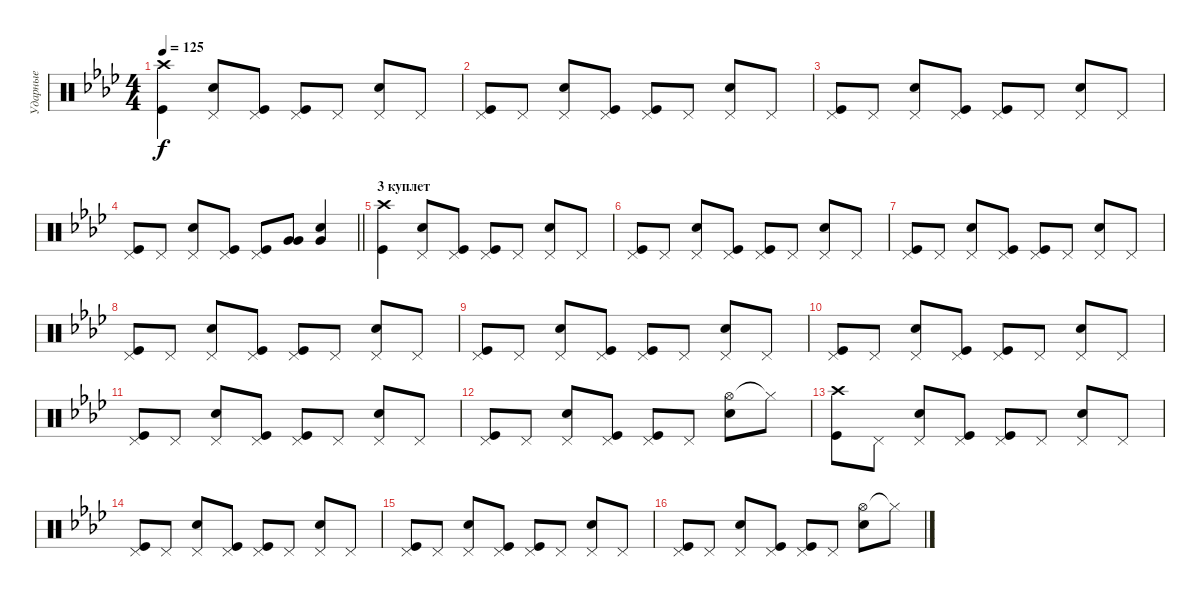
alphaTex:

\track ("Ударные" "Ударные") {solo instrument percussion}
\staff {score}
\articulation defaults
\ts (4 4)
\tempo 125
\clef neutral
\ks fminor
("Crash high (hit)" "Kick (hit)").4{dy f} ("Pedal Hi-Hat (hit)" "Electric Snare (hit)").8 ("Pedal Hi-Hat (hit)" "Kick (hit)").8 ("Pedal Hi-Hat (hit)" "Kick (hit)").8 "Pedal Hi-Hat (hit)".8 ("Pedal Hi-Hat (hit)" "Electric Snare (hit)").8 "Pedal Hi-Hat (hit)".8 |
("Pedal Hi-Hat (hit)" "Kick (hit)").8 "Pedal Hi-Hat (hit)".8 ("Pedal Hi-Hat (hit)" "Electric Snare (hit)").8 ("Pedal Hi-Hat (hit)" "Kick (hit)").8 ("Pedal Hi-Hat (hit)" "Kick (hit)").8 "Pedal Hi-Hat (hit)".8 ("Pedal Hi-Hat (hit)" "Electric Snare (hit)").8 "Pedal Hi-Hat (hit)".8 |
("Pedal Hi-Hat (hit)" "Kick (hit)").8 "Pedal Hi-Hat (hit)".8 ("Pedal Hi-Hat (hit)" "Electric Snare (hit)").8 ("Pedal Hi-Hat (hit)" "Kick (hit)").8 ("Pedal Hi-Hat (hit)" "Kick (hit)").8 "Pedal Hi-Hat (hit)".8 ("Pedal Hi-Hat (hit)" "Electric Snare (hit)").8 "Pedal Hi-Hat (hit)".8 |
\barLineRight lightlight
("Pedal Hi-Hat (hit)" "Kick (hit)").8 "Pedal Hi-Hat (hit)".8 ("Pedal Hi-Hat (hit)" "Electric Snare (hit)").8 ("Pedal Hi-Hat (hit)" "Kick (hit)").8 ("Pedal Hi-Hat (hit)" "Kick (hit)").8 ("Very Low Tom (hit)" "Very Low Tom (hit)").8 ("Very Low Tom (hit)" "Electric Snare (hit)").4 |
\section ("" "3 куплет")
("Crash high (hit)" "Kick (hit)").4 ("Pedal Hi-Hat (hit)" "Electric Snare (hit)").8 ("Pedal Hi-Hat (hit)" "Kick (hit)").8 ("Pedal Hi-Hat (hit)" "Kick (hit)").8 "Pedal Hi-Hat (hit)".8 ("Pedal Hi-Hat (hit)" "Electric Snare (hit)").8 "Pedal Hi-Hat (hit)".8 |
("Pedal Hi-Hat (hit)" "Kick (hit)").8 "Pedal Hi-Hat (hit)".8 ("Pedal Hi-Hat (hit)" "Electric Snare (hit)").8 ("Pedal Hi-Hat (hit)" "Kick (hit)").8 ("Pedal Hi-Hat (hit)" "Kick (hit)").8 "Pedal Hi-Hat (hit)".8 ("Pedal Hi-Hat (hit)" "Electric Snare (hit)").8 "Pedal Hi-Hat (hit)".8 |
("Pedal Hi-Hat (hit)" "Kick (hit)").8 "Pedal Hi-Hat (hit)".8 ("Pedal Hi-Hat (hit)" "Electric Snare (hit)").8 ("Pedal Hi-Hat (hit)" "Kick (hit)").8 ("Pedal Hi-Hat (hit)" "Kick (hit)").8 "Pedal Hi-Hat (hit)".8 ("Pedal Hi-Hat (hit)" "Electric Snare (hit)").8 "Pedal Hi-Hat (hit)".8 |
("Pedal Hi-Hat (hit)" "Kick (hit)").8 "Pedal Hi-Hat (hit)".8 ("Pedal Hi-Hat (hit)" "Electric Snare (hit)").8 ("Pedal Hi-Hat (hit)" "Kick (hit)").8 ("Pedal Hi-Hat (hit)" "Kick (hit)").8 "Pedal Hi-Hat (hit)".8 ("Pedal Hi-Hat (hit)" "Electric Snare (hit)").8 "Pedal Hi-Hat (hit)".8 |
("Pedal Hi-Hat (hit)" "Kick (hit)").8 "Pedal Hi-Hat (hit)".8 ("Pedal Hi-Hat (hit)" "Electric Snare (hit)").8 ("Pedal Hi-Hat (hit)" "Kick (hit)").8 ("Pedal Hi-Hat (hit)" "Kick (hit)").8 "Pedal Hi-Hat (hit)".8 ("Pedal Hi-Hat (hit)" "Electric Snare (hit)").8 "Pedal Hi-Hat (hit)".8 |
("Pedal Hi-Hat (hit)" "Kick (hit)").8 "Pedal Hi-Hat (hit)".8 ("Pedal Hi-Hat (hit)" "Electric Snare (hit)").8 ("Pedal Hi-Hat (hit)" "Kick (hit)").8 ("Pedal Hi-Hat (hit)" "Kick (hit)").8 "Pedal Hi-Hat (hit)".8 ("Pedal Hi-Hat (hit)" "Electric Snare (hit)").8 "Pedal Hi-Hat (hit)".8 |
("Pedal Hi-Hat (hit)" "Kick (hit)").8 "Pedal Hi-Hat (hit)".8 ("Pedal Hi-Hat (hit)" "Electric Snare (hit)").8 ("Pedal Hi-Hat (hit)" "Kick (hit)").8 ("Pedal Hi-Hat (hit)" "Kick (hit)").8 "Pedal Hi-Hat (hit)".8 ("Pedal Hi-Hat (hit)" "Electric Snare (hit)").8 "Pedal Hi-Hat (hit)".8 |
("Pedal Hi-Hat (hit)" "Kick (hit)").8 "Pedal Hi-Hat (hit)".8 ("Pedal Hi-Hat (hit)" "Electric Snare (hit)").8 ("Pedal Hi-Hat (hit)" "Kick (hit)").8 ("Pedal Hi-Hat (hit)" "Kick (hit)").8 "Pedal Hi-Hat (hit)".8 ("Hi-Hat (open)" "Electric Snare (hit)").8 "Hi-Hat (closed)"{t}.8 |
("Crash high (hit)" "Kick (hit)").8 "Pedal Hi-Hat (hit)".8 ("Pedal Hi-Hat (hit)" "Electric Snare (hit)").8 ("Pedal Hi-Hat (hit)" "Kick (hit)").8 ("Pedal Hi-Hat (hit)" "Kick (hit)").8 "Pedal Hi-Hat (hit)".8 ("Pedal Hi-Hat (hit)" "Electric Snare (hit)").8 "Pedal Hi-Hat (hit)".8 |
("Pedal Hi-Hat (hit)" "Kick (hit)").8 "Pedal Hi-Hat (hit)".8 ("Pedal Hi-Hat (hit)" "Electric Snare (hit)").8 ("Pedal Hi-Hat (hit)" "Kick (hit)").8 ("Pedal Hi-Hat (hit)" "Kick (hit)").8 "Pedal Hi-Hat (hit)".8 ("Pedal Hi-Hat (hit)" "Electric Snare (hit)").8 "Pedal Hi-Hat (hit)".8 |
("Pedal Hi-Hat (hit)" "Kick (hit)").8 "Pedal Hi-Hat (hit)".8 ("Pedal Hi-Hat (hit)" "Electric Snare (hit)").8 ("Pedal Hi-Hat (hit)" "Kick (hit)").8 ("Pedal Hi-Hat (hit)" "Kick (hit)").8 "Pedal Hi-Hat (hit)".8 ("Pedal Hi-Hat (hit)" "Electric Snare (hit)").8 "Pedal Hi-Hat (hit)".8 |
("Pedal Hi-Hat (hit)" "Kick (hit)").8 "Pedal Hi-Hat (hit)".8 ("Pedal Hi-Hat (hit)" "Electric Snare (hit)").8 ("Pedal Hi-Hat (hit)" "Kick (hit)").8 ("Pedal Hi-Hat (hit)" "Kick (hit)").8 "Pedal Hi-Hat (hit)".8 ("Hi-Hat (open)" "Electric Snare (hit)").8 "Hi-Hat (closed)"{t}.8
